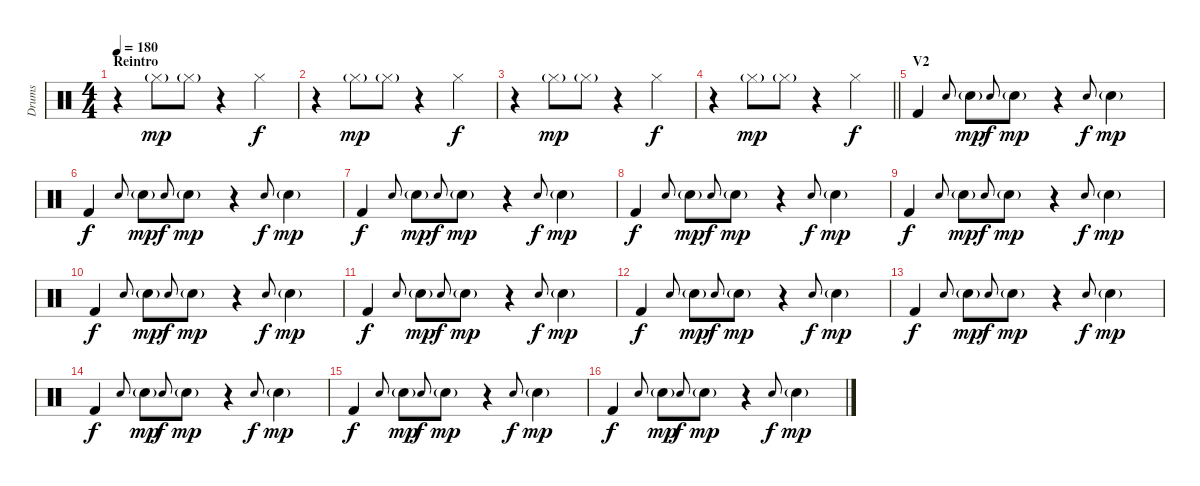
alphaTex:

\track ("Drums" "Drums") {instrument percussion}
\staff {score}
\articulation defaults
\ts (4 4)
\section ("" "Reintro")
\tempo 180
\clef neutral
\ks c
r.4{dy mp} "Hi-Hat (closed)"{g}.8 "Hi-Hat (closed)"{g}.8 r.4 "Hi-Hat (closed)".4{dy f} |
r.4 "Hi-Hat (closed)"{g}.8{dy mp} "Hi-Hat (closed)"{g}.8 r.4 "Hi-Hat (closed)".4{dy f} |
r.4 "Hi-Hat (closed)"{g}.8{dy mp} "Hi-Hat (closed)"{g}.8 r.4 "Hi-Hat (closed)".4{dy f} |
\barLineRight lightlight
r.4 "Hi-Hat (closed)"{g}.8{dy mp} "Hi-Hat (closed)"{g}.8 r.4 "Hi-Hat (closed)".4{dy f} |
\section ("" "V2")
"Kick (hit) 2".4 "Electric Snare (hit)".8{gr onbeat} "Electric Snare (hit)"{g}.8{dy mp} "Electric Snare (hit)".8{gr onbeat dy f} "Electric Snare (hit)"{g}.8{dy mp} r.4 "Electric Snare (hit)".8{gr onbeat dy f} "Electric Snare (hit)"{g}.4{dy mp} |
"Kick (hit) 2".4{dy f} "Electric Snare (hit)".8{gr onbeat} "Electric Snare (hit)"{g}.8{dy mp} "Electric Snare (hit)".8{gr onbeat dy f} "Electric Snare (hit)"{g}.8{dy mp} r.4 "Electric Snare (hit)".8{gr onbeat dy f} "Electric Snare (hit)"{g}.4{dy mp} |
"Kick (hit) 2".4{dy f} "Electric Snare (hit)".8{gr onbeat} "Electric Snare (hit)"{g}.8{dy mp} "Electric Snare (hit)".8{gr onbeat dy f} "Electric Snare (hit)"{g}.8{dy mp} r.4 "Electric Snare (hit)".8{gr onbeat dy f} "Electric Snare (hit)"{g}.4{dy mp} |
"Kick (hit) 2".4{dy f} "Electric Snare (hit)".8{gr onbeat} "Electric Snare (hit)"{g}.8{dy mp} "Electric Snare (hit)".8{gr onbeat dy f} "Electric Snare (hit)"{g}.8{dy mp} r.4 "Electric Snare (hit)".8{gr onbeat dy f} "Electric Snare (hit)"{g}.4{dy mp} |
"Kick (hit) 2".4{dy f} "Electric Snare (hit)".8{gr onbeat} "Electric Snare (hit)"{g}.8{dy mp} "Electric Snare (hit)".8{gr onbeat dy f} "Electric Snare (hit)"{g}.8{dy mp} r.4 "Electric Snare (hit)".8{gr onbeat dy f} "Electric Snare (hit)"{g}.4{dy mp} |
"Kick (hit) 2".4{dy f} "Electric Snare (hit)".8{gr onbeat} "Electric Snare (hit)"{g}.8{dy mp} "Electric Snare (hit)".8{gr onbeat dy f} "Electric Snare (hit)"{g}.8{dy mp} r.4 "Electric Snare (hit)".8{gr onbeat dy f} "Electric Snare (hit)"{g}.4{dy mp} |
"Kick (hit) 2".4{dy f} "Electric Snare (hit)".8{gr onbeat} "Electric Snare (hit)"{g}.8{dy mp} "Electric Snare (hit)".8{gr onbeat dy f} "Electric Snare (hit)"{g}.8{dy mp} r.4 "Electric Snare (hit)".8{gr onbeat dy f} "Electric Snare (hit)"{g}.4{dy mp} |
"Kick (hit) 2".4{dy f} "Electric Snare (hit)".8{gr onbeat} "Electric Snare (hit)"{g}.8{dy mp} "Electric Snare (hit)".8{gr onbeat dy f} "Electric Snare (hit)"{g}.8{dy mp} r.4 "Electric Snare (hit)".8{gr onbeat dy f} "Electric Snare (hit)"{g}.4{dy mp} |
"Kick (hit) 2".4{dy f} "Electric Snare (hit)".8{gr onbeat} "Electric Snare (hit)"{g}.8{dy mp} "Electric Snare (hit)".8{gr onbeat dy f} "Electric Snare (hit)"{g}.8{dy mp} r.4 "Electric Snare (hit)".8{gr onbeat dy f} "Electric Snare (hit)"{g}.4{dy mp} |
"Kick (hit) 2".4{dy f} "Electric Snare (hit)".8{gr onbeat} "Electric Snare (hit)"{g}.8{dy mp} "Electric Snare (hit)".8{gr onbeat dy f} "Electric Snare (hit)"{g}.8{dy mp} r.4 "Electric Snare (hit)".8{gr onbeat dy f} "Electric Snare (hit)"{g}.4{dy mp} |
"Kick (hit) 2".4{dy f} "Electric Snare (hit)".8{gr onbeat} "Electric Snare (hit)"{g}.8{dy mp} "Electric Snare (hit)".8{gr onbeat dy f} "Electric Snare (hit)"{g}.8{dy mp} r.4 "Electric Snare (hit)".8{gr onbeat dy f} "Electric Snare (hit)"{g}.4{dy mp} |
"Kick (hit) 2".4{dy f} "Electric Snare (hit)".8{gr onbeat} "Electric Snare (hit)"{g}.8{dy mp} "Electric Snare (hit)".8{gr onbeat dy f} "Electric Snare (hit)"{g}.8{dy mp} r.4 "Electric Snare (hit)".8{gr onbeat dy f} "Electric Snare (hit)"{g}.4{dy mp}
